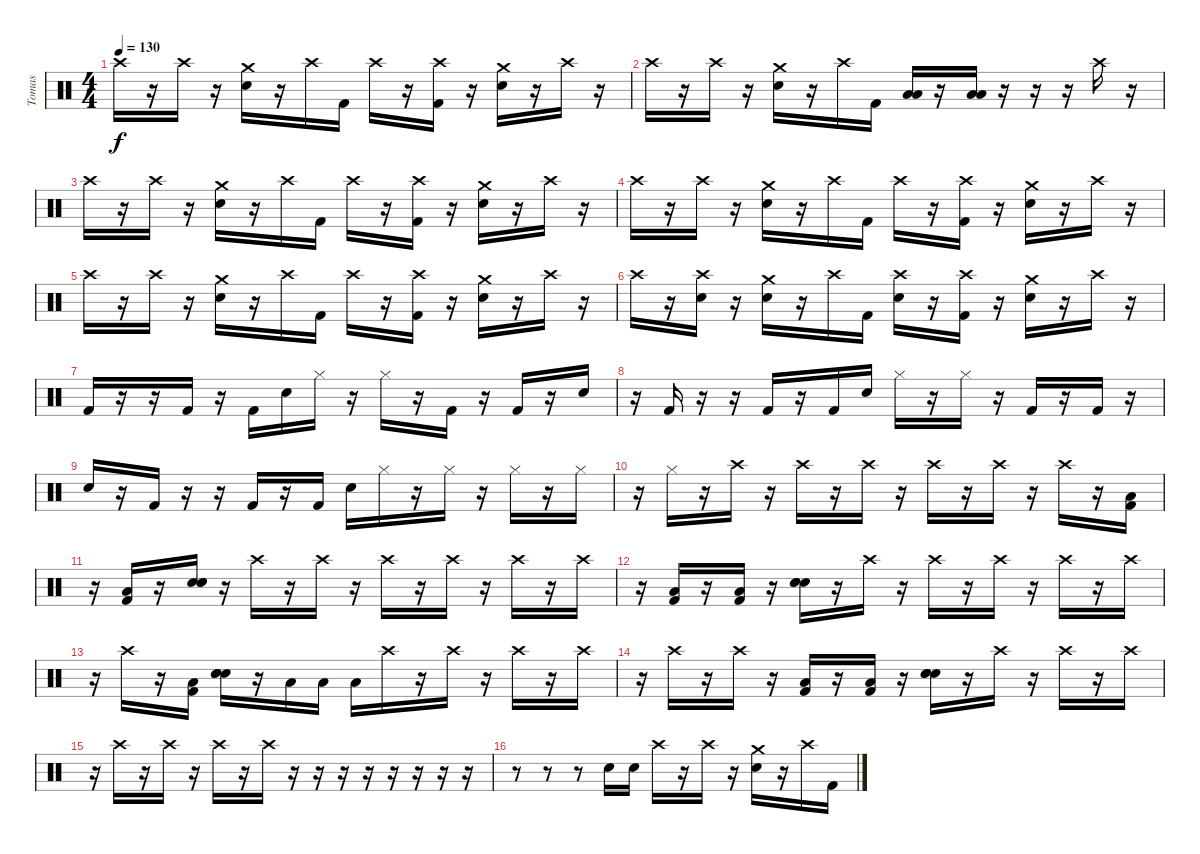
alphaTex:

\track ("Tomas" "Tomas") {instrument percussion}
\staff {score}
\articulation defaults
\ts (4 4)
\tempo 130
\clef neutral
\ks c "Crash high (hit)".16{dy f}
r.16 "Crash high (hit)".16 r.16 ("Electric Snare (hit)" "Crash medium (hit)").16 r.16 "Crash high (hit)".16 "Kick (hit) 2".16 "Crash high (hit)".16 r.16 ("Kick (hit) 2" "Crash high (hit)").16 r.16 ("Electric Snare (hit)" "Crash medium (hit)").16 r.16 "Crash high (hit)".16 r.16 |
"Crash high (hit)".16 r.16 "Crash high (hit)".16 r.16 ("Electric Snare (hit)" "Crash medium (hit)").16 r.16 "Crash high (hit)".16 "Kick (hit) 2".16 ("Low Tom (hit)" "Low Floor Tom (hit)").16 r.16 ("Low Tom (hit)" "Low Floor Tom (hit)").16 r.16 r.16 r.16 "Crash high (hit)".16 r.16 |
"Crash high (hit)".16 r.16 "Crash high (hit)".16 r.16 ("Electric Snare (hit)" "Crash medium (hit)").16 r.16 "Crash high (hit)".16 "Kick (hit) 2".16 "Crash high (hit)".16 r.16 ("Kick (hit) 2" "Crash high (hit)").16 r.16 ("Electric Snare (hit)" "Crash medium (hit)").16 r.16 "Crash high (hit)".16 r.16 |
"Crash high (hit)".16 r.16 "Crash high (hit)".16 r.16 ("Electric Snare (hit)" "Crash medium (hit)").16 r.16 "Crash high (hit)".16 "Kick (hit) 2".16 "Crash high (hit)".16 r.16 ("Kick (hit) 2" "Crash high (hit)").16 r.16 ("Electric Snare (hit)" "Crash medium (hit)").16 r.16 "Crash high (hit)".16 r.16 |
"Crash high (hit)".16 r.16 "Crash high (hit)".16 r.16 ("Electric Snare (hit)" "Crash medium (hit)").16 r.16 "Crash high (hit)".16 "Kick (hit) 2".16 "Crash high (hit)".16 r.16 ("Kick (hit) 2" "Crash high (hit)").16 r.16 ("Electric Snare (hit)" "Crash medium (hit)").16 r.16 "Crash high (hit)".16 r.16 |
"Crash high (hit)".16 r.16 ("Snare (hit) 2" "Crash high (hit)").16 r.16 ("Electric Snare (hit)" "Crash medium (hit)").16 r.16 "Crash high (hit)".16 "Kick (hit) 2".16 ("Snare (hit) 2" "Crash high (hit)").16 r.16 ("Kick (hit) 2" "Crash high (hit)").16 r.16 ("Electric Snare (hit)" "Crash medium (hit)").16 r.16 "Crash high (hit)".16 r.16 |
"Kick (hit) 2".16 r.16 r.16 "Kick (hit) 2".16 r.16 "Kick (hit) 2".16 "Snare (hit) 2".16 "Hi-Hat (closed)".16 r.16 "Hi-Hat (closed)".16 r.16 "Kick (hit) 2".16 r.16 "Kick (hit) 2".16 r.16 "Snare (hit) 2".16 |
r.16 "Kick (hit) 2".16 r.16 r.16 "Kick (hit) 2".16 r.16 "Kick (hit) 2".16 "Snare (hit) 2".16 "Hi-Hat (closed)".16 r.16 "Hi-Hat (closed)".16 r.16 "Kick (hit) 2".16 r.16 "Kick (hit) 2".16 r.16 |
"Snare (hit) 2".16 r.16 "Kick (hit) 2".16 r.16 r.16 "Kick (hit) 2".16 r.16 "Kick (hit) 2".16 "Snare (hit) 2".16 "Hi-Hat (closed)".16 r.16 "Hi-Hat (closed)".16 r.16 "Hi-Hat (closed)".16 r.16 "Hi-Hat (closed)".16 |
r.16 "Hi-Hat (closed)".16 r.16 "Crash high (hit)".16 r.16 "Crash high (hit)".16 r.16 "Crash high (hit)".16 r.16 "Crash high (hit)".16 r.16 "Crash high (hit)".16 r.16 "Crash high (hit)".16 r.16 ("Kick (hit) 2" "Low Tom (hit)").16 |
r.16 ("Kick (hit) 2" "Low Tom (hit)").16 r.16 ("Hand Clap (hit)" "Snare (hit) 2" "Electric Snare (hit)").16 r.16 "Crash high (hit)".16 r.16 "Crash high (hit)".16 r.16 "Crash high (hit)".16 r.16 "Crash high (hit)".16 r.16 "Crash high (hit)".16 r.16 "Crash high (hit)".16 |
r.16 ("Kick (hit) 2" "Low Tom (hit)").16 r.16 ("Kick (hit) 2" "Low Tom (hit)").16 r.16 ("Hand Clap (hit)" "Snare (hit) 2" "Electric Snare (hit)").16 r.16 "Crash high (hit)".16 r.16 "Crash high (hit)".16 r.16 "Crash high (hit)".16 r.16 "Crash high (hit)".16 r.16 "Crash high (hit)".16 |
r.16 "Crash high (hit)".16 r.16 ("Kick (hit) 2" "Low Tom (hit)").16 ("Hand Clap (hit)" "Snare (hit) 2" "Electric Snare (hit)").16 r.16 "Low Tom (hit)".16 "Low Tom (hit)".16 "Low Tom (hit)".16 "Crash high (hit)".16 r.16 "Crash high (hit)".16 r.16 "Crash high (hit)".16 r.16 "Crash high (hit)".16 |
r.16 "Crash high (hit)".16 r.16 "Crash high (hit)".16 r.16 ("Kick (hit) 2" "Low Tom (hit)").16 r.16 ("Kick (hit) 2" "Low Tom (hit)").16 r.16 ("Hand Clap (hit)" "Snare (hit) 2" "Electric Snare (hit)").16 r.16 "Crash high (hit)".16 r.16 "Crash high (hit)".16 r.16 "Crash high (hit)".16 |
r.16 "Crash high (hit)".16 r.16 "Crash high (hit)".16 r.16 "Crash high (hit)".16 r.16 "Crash high (hit)".16 r.16 r.16 r.16 r.16 r.16 r.16 r.16 r.16 |
r.8 r.8 r.8 "Snare (hit) 2".16 "Snare (hit) 2".16 "Crash high (hit)".16 r.16 "Crash high (hit)".16 r.16 ("Electric Snare (hit)" "Crash medium (hit)").16 r.16 "Crash high (hit)".16 "Kick (hit) 2".16
